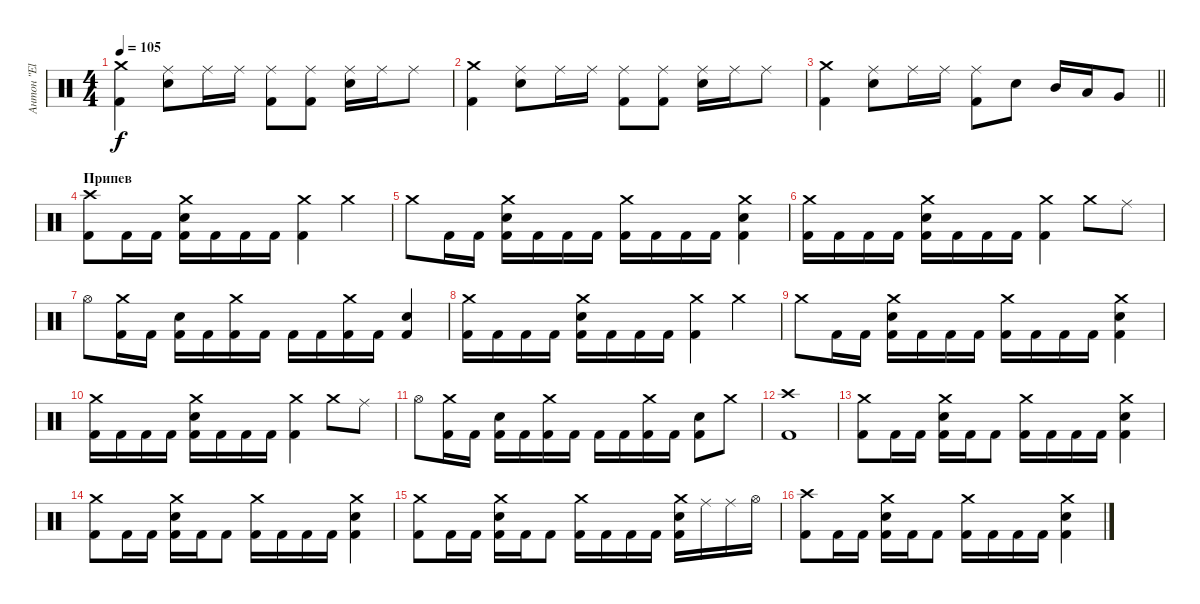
\track ("Антон \"El Bastardo\" Смольянин" "Антон \"El ") {instrument percussion}
\staff {score}
\articulation defaults
\ts (4 4)
\tempo 105
\clef neutral
\ks c
("Crash medium (hit)" "Kick (hit) 2").4{dy f} ("Ride (middle)" "Electric Snare (hit)").8 "Ride (middle)".16 "Ride (middle)".16 ("Ride (middle)" "Kick (hit) 2").8 ("Ride (middle)" "Kick (hit) 2").8 ("Ride (middle)" "Electric Snare (hit)").16 "Ride (middle)".16 "Ride (middle)".8 |
("Crash medium (hit)" "Kick (hit) 2").4 ("Ride (middle)" "Electric Snare (hit)").8 "Ride (middle)".16 "Ride (middle)".16 ("Ride (middle)" "Kick (hit) 2").8 ("Ride (middle)" "Kick (hit) 2").8 ("Ride (middle)" "Electric Snare (hit)").16 "Ride (middle)".16 "Ride (middle)".8 |
\barLineRight lightlight
("Crash medium (hit)" "Kick (hit) 2").4 ("Ride (middle)" "Electric Snare (hit)").8 "Ride (middle)".16 "Ride (middle)".16 ("Ride (middle)" "Kick (hit) 2").8 "Electric Snare (hit)".8 "Mid Tom (hit)".16 "Low Tom (hit)".16 "Very Low Tom (hit)".8 |
\section ("" "Припев")
("Crash high (hit)" "Kick (hit) 2").8 "Kick (hit) 2".16 "Kick (hit) 2".16 ("Crash medium (hit)" "Electric Snare (hit)" "Kick (hit) 2").16 "Kick (hit) 2".16 "Kick (hit) 2".16 "Kick (hit) 2".16 ("Crash medium (hit)" "Kick (hit) 2").4 "Crash medium (hit)".4 |
"Crash medium (hit)".8 "Kick (hit) 2".16 "Kick (hit) 2".16 ("Crash medium (hit)" "Electric Snare (hit)" "Kick (hit) 2").16 "Kick (hit) 2".16 "Kick (hit) 2".16 "Kick (hit) 2".16 ("Crash medium (hit)" "Kick (hit) 2").16 "Kick (hit) 2".16 "Kick (hit) 2".16 "Kick (hit) 2".16 ("Crash medium (hit)" "Electric Snare (hit)" "Kick (hit) 2").4 |
("Crash medium (hit)" "Kick (hit) 2").16 "Kick (hit) 2".16 "Kick (hit) 2".16 "Kick (hit) 2".16 ("Crash medium (hit)" "Electric Snare (hit)" "Kick (hit) 2").16 "Kick (hit) 2".16 "Kick (hit) 2".16 "Kick (hit) 2".16 ("Crash medium (hit)" "Kick (hit) 2").4 "Crash medium (hit)".8 "Ride (middle)".8 |
"Hi-Hat (open)".8 ("Crash medium (hit)" "Kick (hit) 2").16 "Kick (hit) 2".16 ("Electric Snare (hit)" "Kick (hit) 2").16 "Kick (hit) 2".16 ("Crash medium (hit)" "Kick (hit) 2").16 "Kick (hit) 2".16 "Kick (hit) 2".16 "Kick (hit) 2".16 ("Crash medium (hit)" "Kick (hit) 2").16 "Kick (hit) 2".16 ("Electric Snare (hit)" "Kick (hit) 2").4 |
("Crash medium (hit)" "Kick (hit) 2").16 "Kick (hit) 2".16 "Kick (hit) 2".16 "Kick (hit) 2".16 ("Crash medium (hit)" "Electric Snare (hit)" "Kick (hit) 2").16 "Kick (hit) 2".16 "Kick (hit) 2".16 "Kick (hit) 2".16 ("Crash medium (hit)" "Kick (hit) 2").4 "Crash medium (hit)".4 |
"Crash medium (hit)".8 "Kick (hit) 2".16 "Kick (hit) 2".16 ("Crash medium (hit)" "Electric Snare (hit)" "Kick (hit) 2").16 "Kick (hit) 2".16 "Kick (hit) 2".16 "Kick (hit) 2".16 ("Crash medium (hit)" "Kick (hit) 2").16 "Kick (hit) 2".16 "Kick (hit) 2".16 "Kick (hit) 2".16 ("Crash medium (hit)" "Electric Snare (hit)" "Kick (hit) 2").4 |
("Crash medium (hit)" "Kick (hit) 2").16 "Kick (hit) 2".16 "Kick (hit) 2".16 "Kick (hit) 2".16 ("Crash medium (hit)" "Electric Snare (hit)" "Kick (hit) 2").16 "Kick (hit) 2".16 "Kick (hit) 2".16 "Kick (hit) 2".16 ("Crash medium (hit)" "Kick (hit) 2").4 "Crash medium (hit)".8 "Ride (middle)".8 |
"Hi-Hat (open)".8 ("Crash medium (hit)" "Kick (hit) 2").16 "Kick (hit) 2".16 ("Electric Snare (hit)" "Kick (hit) 2").16 "Kick (hit) 2".16 ("Crash medium (hit)" "Kick (hit) 2").16 "Kick (hit) 2".16 "Kick (hit) 2".16 "Kick (hit) 2".16 ("Crash medium (hit)" "Kick (hit) 2").16 "Kick (hit) 2".16 ("Electric Snare (hit)" "Kick (hit) 2").8 "Crash medium (hit)".8 |
("Crash high (hit)" "Kick (hit) 2").1 |
("Crash medium (hit)" "Kick (hit) 2").8 "Kick (hit) 2".16 "Kick (hit) 2".16 ("Crash medium (hit)" "Electric Snare (hit)" "Kick (hit) 2").16 "Kick (hit) 2".16 "Kick (hit) 2".8 ("Crash medium (hit)" "Kick (hit) 2").16 "Kick (hit) 2".16 "Kick (hit) 2".16 "Kick (hit) 2".16 ("Crash medium (hit)" "Electric Snare (hit)" "Kick (hit) 2").4 |
("Crash medium (hit)" "Kick (hit) 2").8 "Kick (hit) 2".16 "Kick (hit) 2".16 ("Crash medium (hit)" "Electric Snare (hit)" "Kick (hit) 2").16 "Kick (hit) 2".16 "Kick (hit) 2".8 ("Crash medium (hit)" "Kick (hit) 2").16 "Kick (hit) 2".16 "Kick (hit) 2".16 "Kick (hit) 2".16 ("Crash medium (hit)" "Electric Snare (hit)" "Kick (hit) 2").4 |
("Crash medium (hit)" "Kick (hit) 2").8 "Kick (hit) 2".16 "Kick (hit) 2".16 ("Crash medium (hit)" "Electric Snare (hit)" "Kick (hit) 2").16 "Kick (hit) 2".16 "Kick (hit) 2".8 ("Crash medium (hit)" "Kick (hit) 2").16 "Kick (hit) 2".16 "Kick (hit) 2".16 "Kick (hit) 2".16 ("Crash medium (hit)" "Electric Snare (hit)" "Kick (hit) 2").16 "Ride (middle)".16 "Ride (middle)".16 "Hi-Hat (open)".16 |
("Crash high (hit)" "Kick (hit) 2").8 "Kick (hit) 2".16 "Kick (hit) 2".16 ("Crash medium (hit)" "Electric Snare (hit)" "Kick (hit) 2").16 "Kick (hit) 2".16 "Kick (hit) 2".8 ("Crash medium (hit)" "Kick (hit) 2").16 "Kick (hit) 2".16 "Kick (hit) 2".16 "Kick (hit) 2".16 ("Crash medium (hit)" "Electric Snare (hit)" "Kick (hit) 2").4
